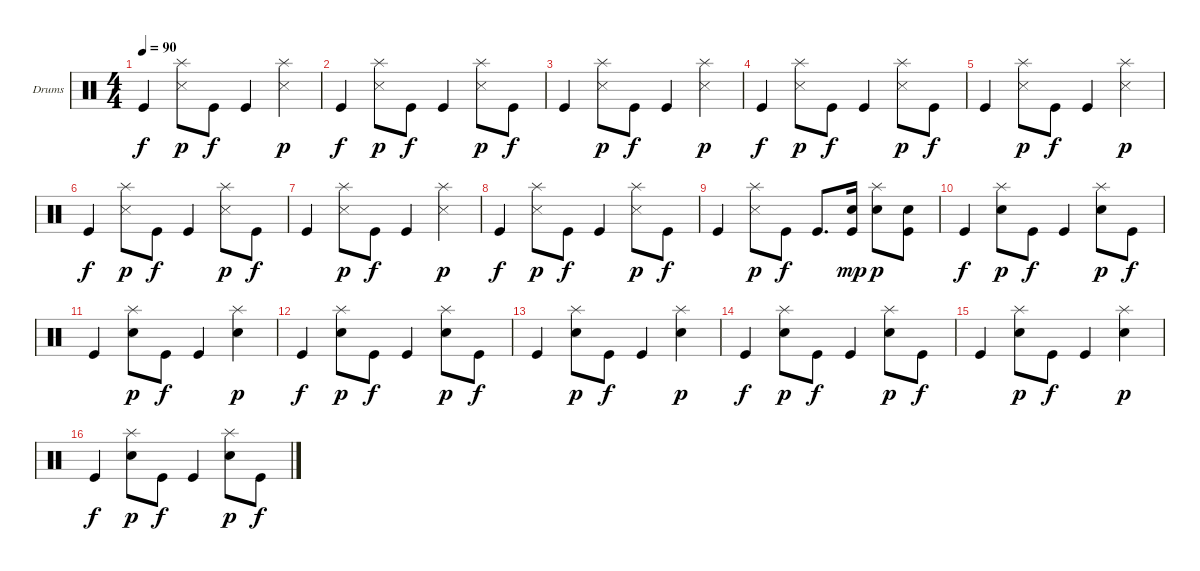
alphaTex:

\bracketExtendMode groupsimilarinstruments
\firstSystemTrackNameOrientation horizontal
\otherSystemsTrackNameOrientation horizontal
\track ("Ударные" "Drums") {instrument percussion}
\staff {score}
\articulation defaults
\ts (4 4)
\tempo 90
\clef neutral
\ks c "Kick (hit)".4{dy f}
("Splash (hit)" "Snare (side stick) 3").8{dy p} "Kick (hit)".8{dy f} "Kick (hit)".4 ("Splash (hit)" "Snare (side stick) 3").4{dy p} |
"Kick (hit)".4{dy f} ("Splash (hit)" "Snare (side stick) 3").8{dy p} "Kick (hit)".8{dy f} "Kick (hit)".4 ("Splash (hit)" "Snare (side stick) 3").8{dy p} "Kick (hit)".8{dy f} |
"Kick (hit)".4 ("Splash (hit)" "Snare (side stick) 3").8{dy p} "Kick (hit)".8{dy f} "Kick (hit)".4 ("Splash (hit)" "Snare (side stick) 3").4{dy p} |
"Kick (hit)".4{dy f} ("Splash (hit)" "Snare (side stick) 3").8{dy p} "Kick (hit)".8{dy f} "Kick (hit)".4 ("Splash (hit)" "Snare (side stick) 3").8{dy p} "Kick (hit)".8{dy f} |
"Kick (hit)".4 ("Splash (hit)" "Snare (side stick) 3").8{dy p} "Kick (hit)".8{dy f} "Kick (hit)".4 ("Splash (hit)" "Snare (side stick) 3").4{dy p} |
"Kick (hit)".4{dy f} ("Splash (hit)" "Snare (side stick) 3").8{dy p} "Kick (hit)".8{dy f} "Kick (hit)".4 ("Splash (hit)" "Snare (side stick) 3").8{dy p} "Kick (hit)".8{dy f} |
"Kick (hit)".4 ("Splash (hit)" "Snare (side stick) 3").8{dy p} "Kick (hit)".8{dy f} "Kick (hit)".4 ("Splash (hit)" "Snare (side stick) 3").4{dy p} |
"Kick (hit)".4{dy f} ("Splash (hit)" "Snare (side stick) 3").8{dy p} "Kick (hit)".8{dy f} "Kick (hit)".4 ("Splash (hit)" "Snare (side stick) 3").8{dy p} "Kick (hit)".8{dy f} |
"Kick (hit)".4 ("Splash (hit)" "Snare (side stick) 3").8{dy p} "Kick (hit)".8{dy f} "Kick (hit)".8{d} ("Snare (hit) 2" "Kick (hit)").16{dy mp} ("Splash (hit)" "Snare (hit) 2").8{dy p} ("Snare (hit) 2" "Kick (hit)").8 |
"Kick (hit)".4{dy f} ("Splash (hit)" "Snare (hit) 2").8{dy p} "Kick (hit)".8{dy f} "Kick (hit)".4 ("Splash (hit)" "Snare (hit) 2").8{dy p} "Kick (hit)".8{dy f} |
"Kick (hit)".4 ("Splash (hit)" "Snare (hit) 2").8{dy p} "Kick (hit)".8{dy f} "Kick (hit)".4 ("Splash (hit)" "Snare (hit) 2").4{dy p} |
"Kick (hit)".4{dy f} ("Splash (hit)" "Snare (hit) 2").8{dy p} "Kick (hit)".8{dy f} "Kick (hit)".4 ("Splash (hit)" "Snare (hit) 2").8{dy p} "Kick (hit)".8{dy f} |
"Kick (hit)".4 ("Splash (hit)" "Snare (hit) 2").8{dy p} "Kick (hit)".8{dy f} "Kick (hit)".4 ("Splash (hit)" "Snare (hit) 2").4{dy p} |
"Kick (hit)".4{dy f} ("Splash (hit)" "Snare (hit) 2").8{dy p} "Kick (hit)".8{dy f} "Kick (hit)".4 ("Splash (hit)" "Snare (hit) 2").8{dy p} "Kick (hit)".8{dy f} |
"Kick (hit)".4 ("Splash (hit)" "Snare (hit) 2").8{dy p} "Kick (hit)".8{dy f} "Kick (hit)".4 ("Splash (hit)" "Snare (hit) 2").4{dy p} |
"Kick (hit)".4{dy f} ("Splash (hit)" "Snare (hit) 2").8{dy p} "Kick (hit)".8{dy f} "Kick (hit)".4 ("Splash (hit)" "Snare (hit) 2").8{dy p} "Kick (hit)".8{dy f}
